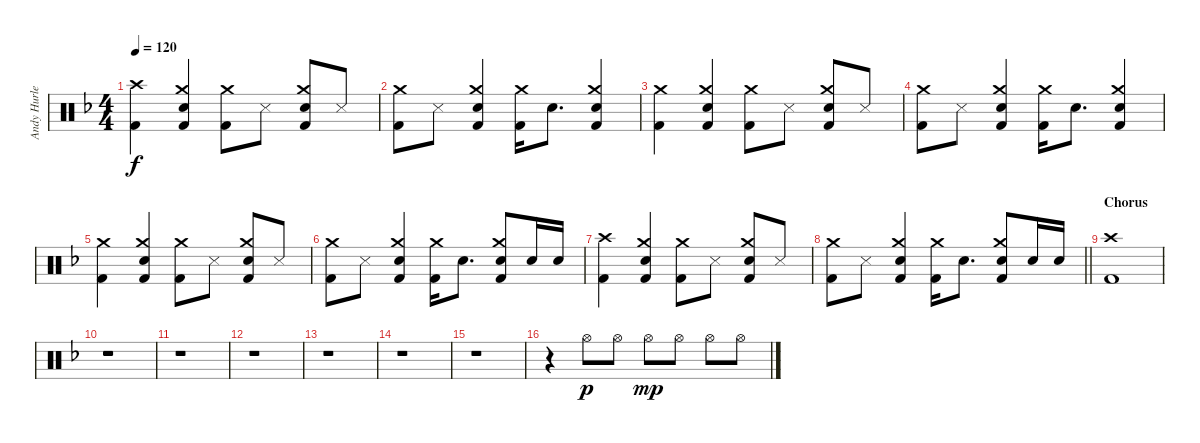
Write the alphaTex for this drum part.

\track ("Andy Hurley" "Andy Hurle") {instrument percussion}
\staff {score}
\articulation defaults
\ts (4 4)
\tempo 120
\clef neutral
\ks dminor
("Crash high (hit)" "Kick (hit) 2").4{dy f} ("Crash medium (hit)" "Snare (hit) 2" "Kick (hit) 2").4 ("Crash medium (hit)" "Kick (hit) 2").8 "Snare (side stick) 3".8 ("Crash medium (hit)" "Snare (hit) 2" "Kick (hit) 2").8 "Snare (side stick) 3".8 |
("Crash medium (hit)" "Kick (hit) 2").8 "Snare (side stick) 3".8 ("Crash medium (hit)" "Snare (hit) 2" "Kick (hit) 2").4 ("Crash medium (hit)" "Kick (hit) 2").16 "Snare (hit) 2".8{d} ("Crash medium (hit)" "Snare (hit) 2" "Kick (hit) 2").4 |
("Crash medium (hit)" "Kick (hit) 2").4 ("Crash medium (hit)" "Snare (hit) 2" "Kick (hit) 2").4 ("Crash medium (hit)" "Kick (hit) 2").8 "Snare (side stick) 3".8 ("Crash medium (hit)" "Snare (hit) 2" "Kick (hit) 2").8 "Snare (side stick) 3".8 |
("Crash medium (hit)" "Kick (hit) 2").8 "Snare (side stick) 3".8 ("Crash medium (hit)" "Snare (hit) 2" "Kick (hit) 2").4 ("Crash medium (hit)" "Kick (hit) 2").16 "Snare (hit) 2".8{d} ("Crash medium (hit)" "Snare (hit) 2" "Kick (hit) 2").4 |
("Crash medium (hit)" "Kick (hit) 2").4 ("Crash medium (hit)" "Snare (hit) 2" "Kick (hit) 2").4 ("Crash medium (hit)" "Kick (hit) 2").8 "Snare (side stick) 3".8 ("Crash medium (hit)" "Snare (hit) 2" "Kick (hit) 2").8 "Snare (side stick) 3".8 |
("Crash medium (hit)" "Kick (hit) 2").8 "Snare (side stick) 3".8 ("Crash medium (hit)" "Snare (hit) 2" "Kick (hit) 2").4 ("Crash medium (hit)" "Kick (hit) 2").16 "Snare (hit) 2".8{d} ("Crash medium (hit)" "Snare (hit) 2" "Kick (hit) 2").8 "Snare (hit) 2".16 "Snare (hit) 2".16 |
("Crash high (hit)" "Kick (hit) 2").4 ("Crash medium (hit)" "Snare (hit) 2" "Kick (hit) 2").4 ("Crash medium (hit)" "Kick (hit) 2").8 "Snare (side stick) 3".8 ("Crash medium (hit)" "Snare (hit) 2" "Kick (hit) 2").8 "Snare (side stick) 3".8 |
\barLineRight lightlight
("Crash medium (hit)" "Kick (hit) 2").8 "Snare (side stick) 3".8 ("Crash medium (hit)" "Snare (hit) 2" "Kick (hit) 2").4 ("Crash medium (hit)" "Kick (hit) 2").16 "Snare (hit) 2".8{d} ("Crash medium (hit)" "Snare (hit) 2" "Kick (hit) 2").8 "Snare (hit) 2".16 "Snare (hit) 2".16 |
\section ("" "Chorus")
("Crash high (hit)" "Kick (hit) 2").1 |
r.1 |
r.1 |
r.1 |
r.1 |
r.1 |
r.1 |
r.4 "Hi-Hat (open)".8{dy p} "Hi-Hat (open)".8 "Hi-Hat (open)".8{dy mp} "Hi-Hat (open)".8 "Hi-Hat (open)".8 "Hi-Hat (open)".8
